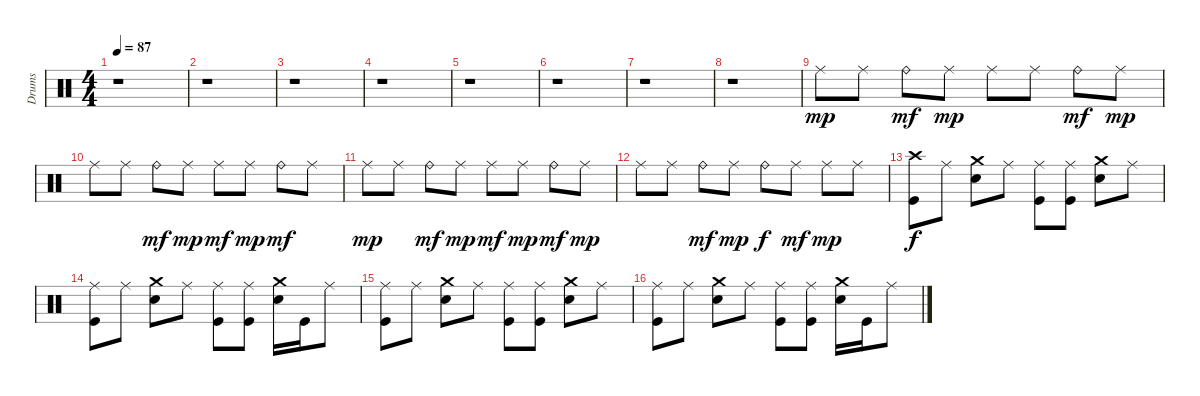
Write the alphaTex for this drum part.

\track ("Drums" "Drums") {instrument percussion}
\staff {score}
\articulation defaults
\ts (4 4)
\tempo 87
\clef neutral
\ks c
r.1{dy mp} |
r.1 |
r.1 |
r.1 |
r.1 |
r.1 |
r.1 |
r.1 |
"Ride (middle)".8 "Ride (middle)".8 "Ride (bell)".8{dy mf} "Ride (middle)".8{dy mp} "Ride (middle)".8 "Ride (middle)".8 "Ride (bell)".8{dy mf} "Ride (middle)".8{dy mp} |
"Ride (middle)".8 "Ride (middle)".8 "Ride (bell)".8{dy mf} "Ride (middle)".8{dy mp} "Ride (middle)".8{dy mf} "Ride (middle)".8{dy mp} "Ride (bell)".8{dy mf} "Ride (middle)".8 |
"Ride (middle)".8{dy mp} "Ride (middle)".8 "Ride (bell)".8{dy mf} "Ride (middle)".8{dy mp} "Ride (middle)".8{dy mf} "Ride (middle)".8{dy mp} "Ride (bell)".8{dy mf} "Ride (middle)".8{dy mp} |
"Ride (middle)".8 "Ride (middle)".8 "Ride (bell)".8{dy mf} "Ride (middle)".8{dy mp} "Ride (bell)".8{dy f} "Ride (middle)".8{dy mf} "Ride (middle)".8{dy mp} "Ride (middle)".8 |
("Crash high (hit)" "Kick (hit)").8{dy f} "Ride (middle)".8 ("Crash medium (hit)" "Snare (hit) 2").8 "Ride (middle)".8 ("Ride (middle)" "Kick (hit)").8 ("Ride (middle)" "Kick (hit)").8 ("Crash medium (hit)" "Snare (hit) 2").8 "Ride (middle)".8 |
("Ride (middle)" "Kick (hit)").8 "Ride (middle)".8 ("Crash medium (hit)" "Snare (hit) 2").8 "Ride (middle)".8 ("Ride (middle)" "Kick (hit)").8 ("Ride (middle)" "Kick (hit)").8 ("Crash medium (hit)" "Snare (hit) 2").16 "Kick (hit)".16 "Ride (middle)".8 |
("Ride (middle)" "Kick (hit)").8 "Ride (middle)".8 ("Crash medium (hit)" "Snare (hit) 2").8 "Ride (middle)".8 ("Ride (middle)" "Kick (hit)").8 ("Ride (middle)" "Kick (hit)").8 ("Crash medium (hit)" "Snare (hit) 2").8 "Ride (middle)".8 |
("Ride (middle)" "Kick (hit)").8 "Ride (middle)".8 ("Crash medium (hit)" "Snare (hit) 2").8 "Ride (middle)".8 ("Ride (middle)" "Kick (hit)").8 ("Ride (middle)" "Kick (hit)").8 ("Crash medium (hit)" "Snare (hit) 2").16 "Kick (hit)".16 "Ride (middle)".8
